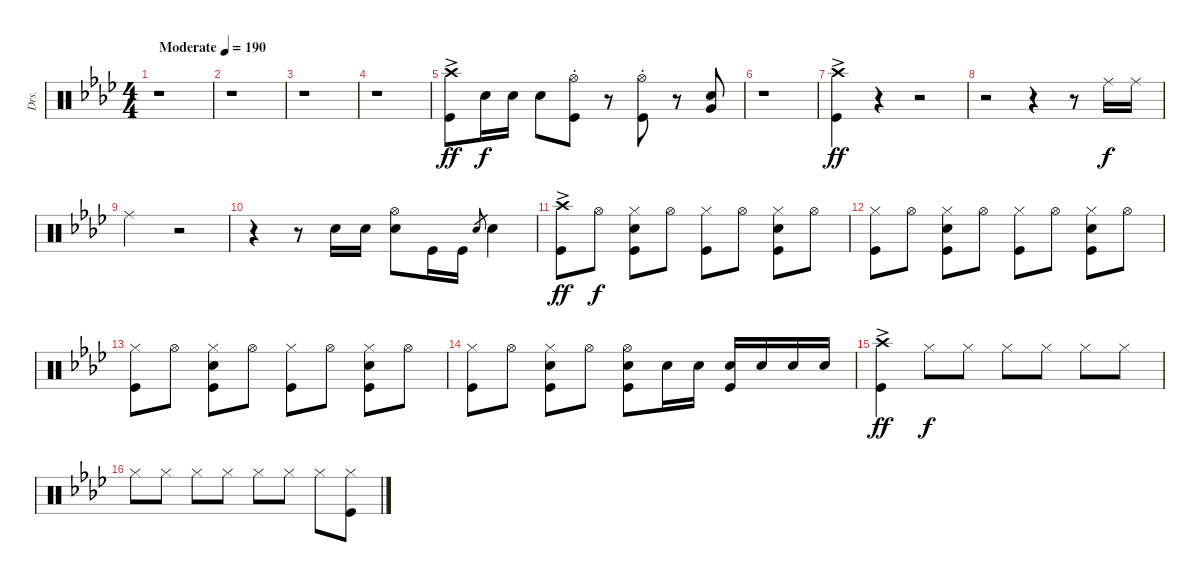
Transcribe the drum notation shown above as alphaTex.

\track ("Drs." "Drs.") {instrument percussion}
\staff {score}
\articulation defaults
\ts (4 4)
\tempo (190 "Moderate")
\clef neutral
\ks ab
r.1{dy ff} |
r.1 |
r.1 |
r.1 |
("Crash high (hit)"{ac} "Kick (hit)").8 "Snare (hit) 2".16{dy f} "Snare (hit) 2".16 "Snare (hit) 2".8 ("Hi-Hat (open)"{st} "Kick (hit)"{st}).8 r.8 ("Hi-Hat (open)"{st} "Kick (hit)"{st}).8 r.8 ("Snare (hit) 2" "Very Low Tom (hit)").8 |
r.1 |
("Crash high (hit)"{ac} "Kick (hit)").4{dy ff} r.4 r.2 |
r.2 r.4 r.8 "Ride (middle)".16{dy f} "Ride (middle)".16 |
"Ride (middle)".2 r.2 |
r.4 r.8 "Snare (hit) 2".16 "Snare (hit) 2".16 ("Hi-Hat (open)" "Snare (hit) 2").8 "Kick (hit)".16 "Kick (hit)".16 "Snare (hit) 2".8{gr} "Snare (hit) 2".4 |
("Crash high (hit)"{ac} "Kick (hit)").8{dy ff} "Hi-Hat (open)".8{dy f} ("Hi-Hat (closed)" "Snare (hit) 2" "Kick (hit)").8 "Hi-Hat (open)".8 ("Hi-Hat (closed)" "Kick (hit)").8 "Hi-Hat (open)".8 ("Hi-Hat (closed)" "Snare (hit) 2" "Kick (hit)").8 "Hi-Hat (open)".8 |
("Hi-Hat (closed)" "Kick (hit)").8 "Hi-Hat (open)".8 ("Hi-Hat (closed)" "Snare (hit) 2" "Kick (hit)").8 "Hi-Hat (open)".8 ("Hi-Hat (closed)" "Kick (hit)").8 "Hi-Hat (open)".8 ("Hi-Hat (closed)" "Snare (hit) 2" "Kick (hit)").8 "Hi-Hat (open)".8 |
("Hi-Hat (closed)" "Kick (hit)").8 "Hi-Hat (open)".8 ("Hi-Hat (closed)" "Snare (hit) 2" "Kick (hit)").8 "Hi-Hat (open)".8 ("Hi-Hat (closed)" "Kick (hit)").8 "Hi-Hat (open)".8 ("Hi-Hat (closed)" "Snare (hit) 2" "Kick (hit)").8 "Hi-Hat (open)".8 |
("Hi-Hat (closed)" "Kick (hit)").8 "Hi-Hat (open)".8 ("Hi-Hat (closed)" "Snare (hit) 2" "Kick (hit)").8 "Hi-Hat (open)".8 ("Hi-Hat (open)" "Snare (hit) 2" "Kick (hit)").8 "Snare (hit) 2".16 "Snare (hit) 2".16 ("Snare (hit) 2" "Kick (hit)").16 "Snare (hit) 2".16 "Snare (hit) 2".16 "Snare (hit) 2".16 |
("Crash high (hit)"{ac} "Kick (hit)").4{dy ff} "Hi-Hat (closed)".8{dy f} "Hi-Hat (closed)".8 "Hi-Hat (closed)".8 "Hi-Hat (closed)".8 "Hi-Hat (closed)".8 "Hi-Hat (closed)".8 |
"Hi-Hat (closed)".8 "Hi-Hat (closed)".8 "Hi-Hat (closed)".8 "Hi-Hat (closed)".8 "Hi-Hat (closed)".8 "Hi-Hat (closed)".8 "Hi-Hat (closed)".8 ("Hi-Hat (closed)" "Kick (hit)").8
